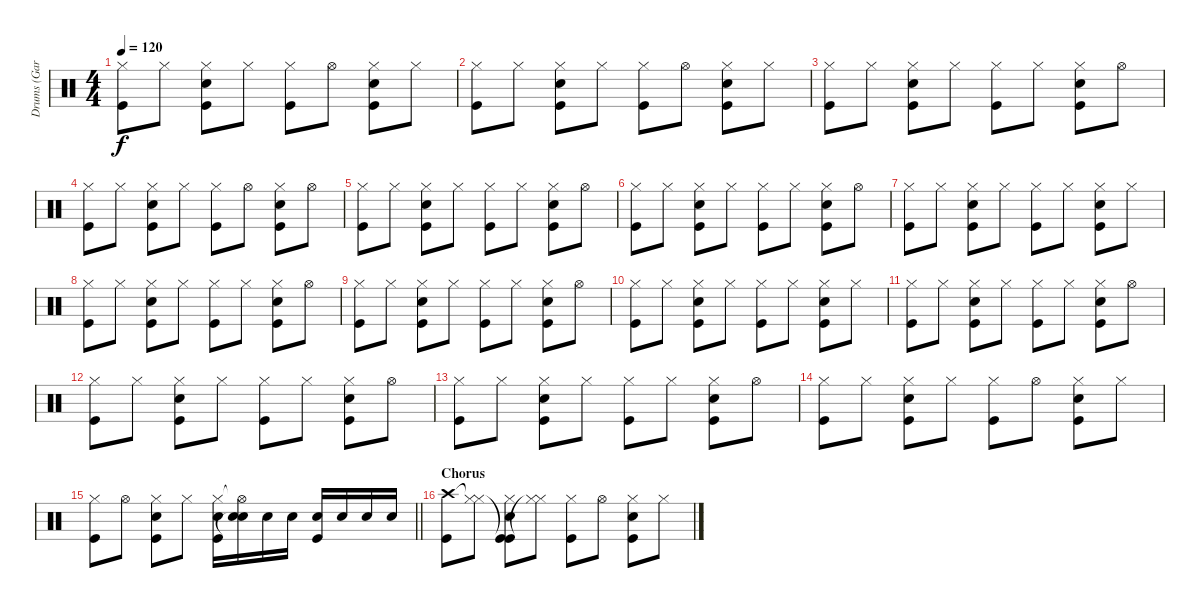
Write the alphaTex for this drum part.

\track ("Drums (Gary Mallaber)" "Drums (Gar") {instrument percussion}
\staff {score}
\articulation defaults
\ts (4 4)
\tempo 120
\clef neutral
\ks c
("Hi-Hat (closed)" "Kick (hit)").8{dy f} "Hi-Hat (closed)".8 ("Hi-Hat (closed)" "Snare (hit) 2" "Kick (hit)").8 "Hi-Hat (closed)".8 ("Hi-Hat (closed)" "Kick (hit)").8 "Hi-Hat (open)".8 ("Hi-Hat (closed)" "Snare (hit) 2" "Kick (hit)").8 "Hi-Hat (closed)".8 |
("Hi-Hat (closed)" "Kick (hit)").8 "Hi-Hat (closed)".8 ("Hi-Hat (closed)" "Snare (hit) 2" "Kick (hit)").8 "Hi-Hat (closed)".8 ("Hi-Hat (closed)" "Kick (hit)").8 "Hi-Hat (open)".8 ("Hi-Hat (closed)" "Snare (hit) 2" "Kick (hit)").8 "Hi-Hat (closed)".8 |
("Hi-Hat (closed)" "Kick (hit)").8 "Hi-Hat (closed)".8 ("Hi-Hat (closed)" "Snare (hit) 2" "Kick (hit)").8 "Hi-Hat (closed)".8 ("Hi-Hat (closed)" "Kick (hit)").8 "Hi-Hat (closed)".8 ("Hi-Hat (closed)" "Snare (hit) 2" "Kick (hit)").8 "Hi-Hat (open)".8 |
("Hi-Hat (closed)" "Kick (hit)").8 "Hi-Hat (closed)".8 ("Hi-Hat (closed)" "Snare (hit) 2" "Kick (hit)").8 "Hi-Hat (closed)".8 ("Hi-Hat (closed)" "Kick (hit)").8 "Hi-Hat (open)".8 ("Hi-Hat (closed)" "Snare (hit) 2" "Kick (hit)").8 "Hi-Hat (open)".8 |
("Hi-Hat (closed)" "Kick (hit)").8 "Hi-Hat (closed)".8 ("Hi-Hat (closed)" "Snare (hit) 2" "Kick (hit)").8 "Hi-Hat (closed)".8 ("Hi-Hat (closed)" "Kick (hit)").8 "Hi-Hat (closed)".8 ("Hi-Hat (closed)" "Snare (hit) 2" "Kick (hit)").8 "Hi-Hat (open)".8 |
("Hi-Hat (closed)" "Kick (hit)").8 "Hi-Hat (closed)".8 ("Hi-Hat (closed)" "Snare (hit) 2" "Kick (hit)").8 "Hi-Hat (closed)".8 ("Hi-Hat (closed)" "Kick (hit)").8 "Hi-Hat (closed)".8 ("Hi-Hat (closed)" "Snare (hit) 2" "Kick (hit)").8 "Hi-Hat (open)".8 |
("Hi-Hat (closed)" "Kick (hit)").8 "Hi-Hat (closed)".8 ("Hi-Hat (closed)" "Snare (hit) 2" "Kick (hit)").8 "Hi-Hat (closed)".8 ("Hi-Hat (closed)" "Kick (hit)").8 "Hi-Hat (closed)".8 ("Hi-Hat (closed)" "Snare (hit) 2" "Kick (hit)").8 "Hi-Hat (closed)".8 |
("Hi-Hat (closed)" "Kick (hit)").8 "Hi-Hat (closed)".8 ("Hi-Hat (closed)" "Snare (hit) 2" "Kick (hit)").8 "Hi-Hat (closed)".8 ("Hi-Hat (closed)" "Kick (hit)").8 "Hi-Hat (closed)".8 ("Hi-Hat (closed)" "Snare (hit) 2" "Kick (hit)").8 "Hi-Hat (open)".8 |
("Hi-Hat (closed)" "Kick (hit)").8 "Hi-Hat (closed)".8 ("Hi-Hat (closed)" "Snare (hit) 2" "Kick (hit)").8 "Hi-Hat (closed)".8 ("Hi-Hat (closed)" "Kick (hit)").8 "Hi-Hat (closed)".8 ("Hi-Hat (closed)" "Snare (hit) 2" "Kick (hit)").8 "Hi-Hat (open)".8 |
("Hi-Hat (closed)" "Kick (hit)").8 "Hi-Hat (closed)".8 ("Hi-Hat (closed)" "Snare (hit) 2" "Kick (hit)").8 "Hi-Hat (closed)".8 ("Hi-Hat (closed)" "Kick (hit)").8 "Hi-Hat (closed)".8 ("Hi-Hat (closed)" "Snare (hit) 2" "Kick (hit)").8 "Hi-Hat (closed)".8 |
("Hi-Hat (closed)" "Kick (hit)").8 "Hi-Hat (closed)".8 ("Hi-Hat (closed)" "Snare (hit) 2" "Kick (hit)").8 "Hi-Hat (closed)".8 ("Hi-Hat (closed)" "Kick (hit)").8 "Hi-Hat (closed)".8 ("Hi-Hat (closed)" "Snare (hit) 2" "Kick (hit)").8 "Hi-Hat (open)".8 |
("Hi-Hat (closed)" "Kick (hit)").8 "Hi-Hat (closed)".8 ("Hi-Hat (closed)" "Snare (hit) 2" "Kick (hit)").8 "Hi-Hat (closed)".8 ("Hi-Hat (closed)" "Kick (hit)").8 "Hi-Hat (closed)".8 ("Hi-Hat (closed)" "Snare (hit) 2" "Kick (hit)").8 "Hi-Hat (open)".8 |
("Hi-Hat (closed)" "Kick (hit)").8 "Hi-Hat (closed)".8 ("Hi-Hat (closed)" "Snare (hit) 2" "Kick (hit)").8 "Hi-Hat (closed)".8 ("Hi-Hat (closed)" "Kick (hit)").8 "Hi-Hat (closed)".8 ("Hi-Hat (closed)" "Snare (hit) 2" "Kick (hit)").8 "Hi-Hat (open)".8 |
("Hi-Hat (closed)" "Kick (hit)").8 "Hi-Hat (closed)".8 ("Hi-Hat (closed)" "Snare (hit) 2" "Kick (hit)").8 "Hi-Hat (closed)".8 ("Hi-Hat (closed)" "Kick (hit)").8 "Hi-Hat (open)".8 ("Hi-Hat (closed)" "Snare (hit) 2" "Kick (hit)").8 "Hi-Hat (closed)".8 |
\barLineRight lightlight
("Hi-Hat (closed)" "Kick (hit)").8 "Hi-Hat (open)".8 ("Hi-Hat (closed)" "Snare (hit) 2" "Kick (hit)").8 "Hi-Hat (closed)".8 ("Hi-Hat (closed)" "Snare (hit) 2" "Kick (hit)").16 ("Hi-Hat (open)"{t} "Snare (hit) 2" "Snare (hit)"{t}).16 "Snare (hit) 2".16 "Snare (hit) 2".16 ("Snare (hit) 2" "Kick (hit)").16 "Snare (hit) 2".16 "Snare (hit) 2".16 "Snare (hit) 2".16 |
\section ("" "Chorus")
("Crash high (hit)" "Kick (hit)").8 ("Hi-Hat (closed)"{t} "Hi-Hat (closed)").8 ("Kick (hit)"{t} "Hi-Hat (closed)" "Snare (hit) 2" "Kick (hit)").8 ("Hi-Hat (closed)"{t} "Hi-Hat (closed)").8 ("Hi-Hat (closed)" "Kick (hit)").8 "Hi-Hat (open)".8 ("Hi-Hat (closed)" "Snare (hit) 2" "Kick (hit)").8 "Hi-Hat (closed)".8
